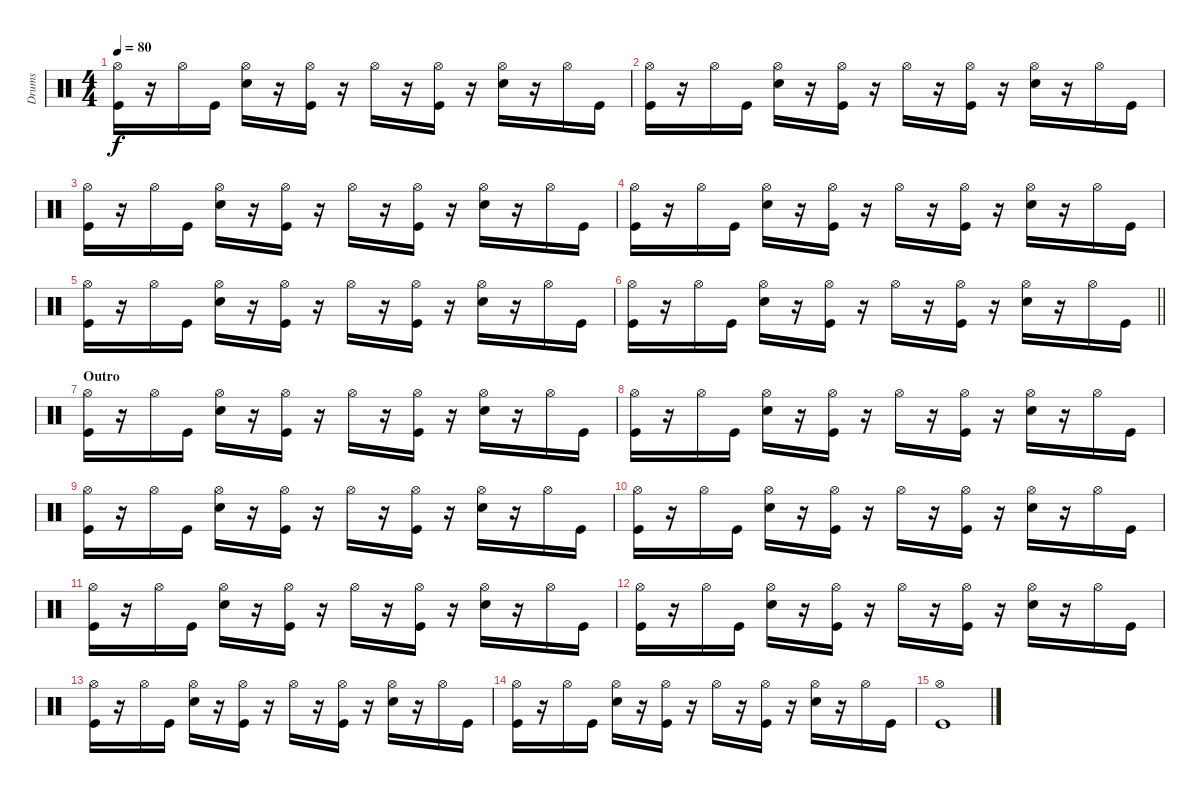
\track ("Drums" "Drums") {instrument percussion}
\staff {score}
\articulation defaults
\ts (4 4)
\tempo 80
\clef neutral
\ks c
("Hi-Hat (open)" "Kick (hit)").16{dy f} r.16 "Hi-Hat (open)".16 "Kick (hit)".16 ("Hi-Hat (open)" "Electric Snare (hit)").16 r.16 ("Hi-Hat (open)" "Kick (hit)").16 r.16 "Hi-Hat (open)".16 r.16 ("Hi-Hat (open)" "Kick (hit)").16 r.16 ("Hi-Hat (open)" "Electric Snare (hit)").16 r.16 "Hi-Hat (open)".16 "Kick (hit)".16 |
("Hi-Hat (open)" "Kick (hit)").16 r.16 "Hi-Hat (open)".16 "Kick (hit)".16 ("Hi-Hat (open)" "Electric Snare (hit)").16 r.16 ("Hi-Hat (open)" "Kick (hit)").16 r.16 "Hi-Hat (open)".16 r.16 ("Hi-Hat (open)" "Kick (hit)").16 r.16 ("Hi-Hat (open)" "Electric Snare (hit)").16 r.16 "Hi-Hat (open)".16 "Kick (hit)".16 |
("Hi-Hat (open)" "Kick (hit)").16 r.16 "Hi-Hat (open)".16 "Kick (hit)".16 ("Hi-Hat (open)" "Electric Snare (hit)").16 r.16 ("Hi-Hat (open)" "Kick (hit)").16 r.16 "Hi-Hat (open)".16 r.16 ("Hi-Hat (open)" "Kick (hit)").16 r.16 ("Hi-Hat (open)" "Electric Snare (hit)").16 r.16 "Hi-Hat (open)".16 "Kick (hit)".16 |
("Hi-Hat (open)" "Kick (hit)").16 r.16 "Hi-Hat (open)".16 "Kick (hit)".16 ("Hi-Hat (open)" "Electric Snare (hit)").16 r.16 ("Hi-Hat (open)" "Kick (hit)").16 r.16 "Hi-Hat (open)".16 r.16 ("Hi-Hat (open)" "Kick (hit)").16 r.16 ("Hi-Hat (open)" "Electric Snare (hit)").16 r.16 "Hi-Hat (open)".16 "Kick (hit)".16 |
("Hi-Hat (open)" "Kick (hit)").16 r.16 "Hi-Hat (open)".16 "Kick (hit)".16 ("Hi-Hat (open)" "Electric Snare (hit)").16 r.16 ("Hi-Hat (open)" "Kick (hit)").16 r.16 "Hi-Hat (open)".16 r.16 ("Hi-Hat (open)" "Kick (hit)").16 r.16 ("Hi-Hat (open)" "Electric Snare (hit)").16 r.16 "Hi-Hat (open)".16 "Kick (hit)".16 |
\barLineRight lightlight
("Hi-Hat (open)" "Kick (hit)").16 r.16 "Hi-Hat (open)".16 "Kick (hit)".16 ("Hi-Hat (open)" "Electric Snare (hit)").16 r.16 ("Hi-Hat (open)" "Kick (hit)").16 r.16 "Hi-Hat (open)".16 r.16 ("Hi-Hat (open)" "Kick (hit)").16 r.16 ("Hi-Hat (open)" "Electric Snare (hit)").16 r.16 "Hi-Hat (open)".16 "Kick (hit)".16 |
\section ("" "Outro")
("Hi-Hat (open)" "Kick (hit)").16 r.16 "Hi-Hat (open)".16 "Kick (hit)".16 ("Hi-Hat (open)" "Electric Snare (hit)").16 r.16 ("Hi-Hat (open)" "Kick (hit)").16 r.16 "Hi-Hat (open)".16 r.16 ("Hi-Hat (open)" "Kick (hit)").16 r.16 ("Hi-Hat (open)" "Electric Snare (hit)").16 r.16 "Hi-Hat (open)".16 "Kick (hit)".16 |
("Hi-Hat (open)" "Kick (hit)").16 r.16 "Hi-Hat (open)".16 "Kick (hit)".16 ("Hi-Hat (open)" "Electric Snare (hit)").16 r.16 ("Hi-Hat (open)" "Kick (hit)").16 r.16 "Hi-Hat (open)".16 r.16 ("Hi-Hat (open)" "Kick (hit)").16 r.16 ("Hi-Hat (open)" "Electric Snare (hit)").16 r.16 "Hi-Hat (open)".16 "Kick (hit)".16 |
("Hi-Hat (open)" "Kick (hit)").16 r.16 "Hi-Hat (open)".16 "Kick (hit)".16 ("Hi-Hat (open)" "Electric Snare (hit)").16 r.16 ("Hi-Hat (open)" "Kick (hit)").16 r.16 "Hi-Hat (open)".16 r.16 ("Hi-Hat (open)" "Kick (hit)").16 r.16 ("Hi-Hat (open)" "Electric Snare (hit)").16 r.16 "Hi-Hat (open)".16 "Kick (hit)".16 |
("Hi-Hat (open)" "Kick (hit)").16 r.16 "Hi-Hat (open)".16 "Kick (hit)".16 ("Hi-Hat (open)" "Electric Snare (hit)").16 r.16 ("Hi-Hat (open)" "Kick (hit)").16 r.16 "Hi-Hat (open)".16 r.16 ("Hi-Hat (open)" "Kick (hit)").16 r.16 ("Hi-Hat (open)" "Electric Snare (hit)").16 r.16 "Hi-Hat (open)".16 "Kick (hit)".16 |
("Hi-Hat (open)" "Kick (hit)").16 r.16 "Hi-Hat (open)".16 "Kick (hit)".16 ("Hi-Hat (open)" "Electric Snare (hit)").16 r.16 ("Hi-Hat (open)" "Kick (hit)").16 r.16 "Hi-Hat (open)".16 r.16 ("Hi-Hat (open)" "Kick (hit)").16 r.16 ("Hi-Hat (open)" "Electric Snare (hit)").16 r.16 "Hi-Hat (open)".16 "Kick (hit)".16 |
("Hi-Hat (open)" "Kick (hit)").16 r.16 "Hi-Hat (open)".16 "Kick (hit)".16 ("Hi-Hat (open)" "Electric Snare (hit)").16 r.16 ("Hi-Hat (open)" "Kick (hit)").16 r.16 "Hi-Hat (open)".16 r.16 ("Hi-Hat (open)" "Kick (hit)").16 r.16 ("Hi-Hat (open)" "Electric Snare (hit)").16 r.16 "Hi-Hat (open)".16 "Kick (hit)".16 |
("Hi-Hat (open)" "Kick (hit)").16 r.16 "Hi-Hat (open)".16 "Kick (hit)".16 ("Hi-Hat (open)" "Electric Snare (hit)").16 r.16 ("Hi-Hat (open)" "Kick (hit)").16 r.16 "Hi-Hat (open)".16 r.16 ("Hi-Hat (open)" "Kick (hit)").16 r.16 ("Hi-Hat (open)" "Electric Snare (hit)").16 r.16 "Hi-Hat (open)".16 "Kick (hit)".16 |
("Hi-Hat (open)" "Kick (hit)").16 r.16 "Hi-Hat (open)".16 "Kick (hit)".16 ("Hi-Hat (open)" "Electric Snare (hit)").16 r.16 ("Hi-Hat (open)" "Kick (hit)").16 r.16 "Hi-Hat (open)".16 r.16 ("Hi-Hat (open)" "Kick (hit)").16 r.16 ("Hi-Hat (open)" "Electric Snare (hit)").16 r.16 "Hi-Hat (open)".16 "Kick (hit)".16 |
("Hi-Hat (open)" "Kick (hit)").1
